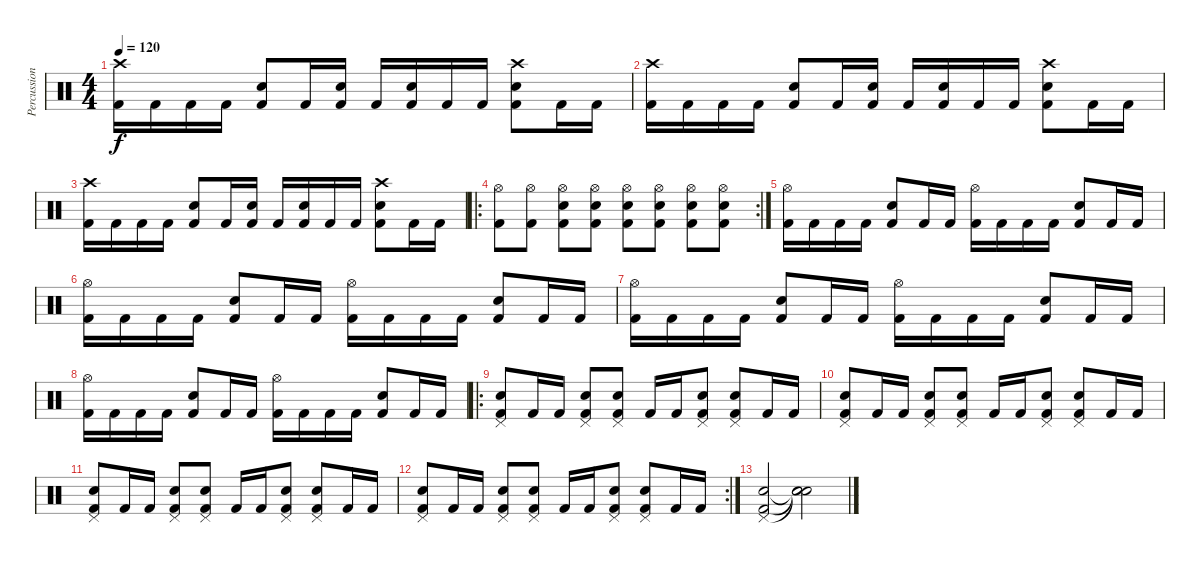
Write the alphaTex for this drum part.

\track ("Percussion - Ryan Vikedal" "Percussion") {instrument percussion}
\staff {score}
\articulation defaults
\ts (4 4)
\tempo 120
\clef neutral
\ks c
("Crash high (hit)" "Kick (hit) 2").16{dy f} "Kick (hit) 2".16 "Kick (hit) 2".16 "Kick (hit) 2".16 ("Snare (hit) 2" "Kick (hit) 2").8 "Kick (hit) 2".16 ("Snare (hit) 2" "Kick (hit) 2").16 "Kick (hit) 2".16 ("Snare (hit) 2" "Kick (hit) 2").16 "Kick (hit) 2".16 "Kick (hit) 2".16 ("Crash high (hit)" "Snare (hit) 2" "Kick (hit) 2").8 "Kick (hit) 2".16 "Kick (hit) 2".16 |
("Crash high (hit)" "Kick (hit) 2").16 "Kick (hit) 2".16 "Kick (hit) 2".16 "Kick (hit) 2".16 ("Snare (hit) 2" "Kick (hit) 2").8 "Kick (hit) 2".16 ("Snare (hit) 2" "Kick (hit) 2").16 "Kick (hit) 2".16 ("Snare (hit) 2" "Kick (hit) 2").16 "Kick (hit) 2".16 "Kick (hit) 2".16 ("Crash high (hit)" "Snare (hit) 2" "Kick (hit) 2").8 "Kick (hit) 2".16 "Kick (hit) 2".16 |
("Crash high (hit)" "Kick (hit) 2").16 "Kick (hit) 2".16 "Kick (hit) 2".16 "Kick (hit) 2".16 ("Snare (hit) 2" "Kick (hit) 2").8 "Kick (hit) 2".16 ("Snare (hit) 2" "Kick (hit) 2").16 "Kick (hit) 2".16 ("Snare (hit) 2" "Kick (hit) 2").16 "Kick (hit) 2".16 "Kick (hit) 2".16 ("Crash high (hit)" "Snare (hit) 2" "Kick (hit) 2").8 "Kick (hit) 2".16 "Kick (hit) 2".16 |
\ro
\rc 2
("Hi-Hat (open)" "Kick (hit) 2").8 ("Hi-Hat (open)" "Kick (hit) 2").8 ("Hi-Hat (open)" "Snare (hit) 2" "Kick (hit) 2").8 ("Hi-Hat (open)" "Snare (hit) 2" "Kick (hit) 2").8 ("Hi-Hat (open)" "Snare (hit) 2" "Kick (hit) 2").8 ("Hi-Hat (open)" "Snare (hit) 2" "Kick (hit) 2").8 ("Hi-Hat (open)" "Snare (hit) 2" "Kick (hit) 2").8 ("Hi-Hat (open)" "Snare (hit) 2" "Kick (hit) 2").8 |
("Hi-Hat (open)" "Kick (hit) 2").16 "Kick (hit) 2".16 "Kick (hit) 2".16 "Kick (hit) 2".16 ("Snare (hit) 2" "Kick (hit) 2").8 "Kick (hit) 2".16 "Kick (hit) 2".16 ("Hi-Hat (open)" "Kick (hit) 2").16 "Kick (hit) 2".16 "Kick (hit) 2".16 "Kick (hit) 2".16 ("Snare (hit) 2" "Kick (hit) 2").8 "Kick (hit) 2".16 "Kick (hit) 2".16 |
("Hi-Hat (open)" "Kick (hit) 2").16 "Kick (hit) 2".16 "Kick (hit) 2".16 "Kick (hit) 2".16 ("Snare (hit) 2" "Kick (hit) 2").8 "Kick (hit) 2".16 "Kick (hit) 2".16 ("Hi-Hat (open)" "Kick (hit) 2").16 "Kick (hit) 2".16 "Kick (hit) 2".16 "Kick (hit) 2".16 ("Snare (hit) 2" "Kick (hit) 2").8 "Kick (hit) 2".16 "Kick (hit) 2".16 |
("Hi-Hat (open)" "Kick (hit) 2").16 "Kick (hit) 2".16 "Kick (hit) 2".16 "Kick (hit) 2".16 ("Snare (hit) 2" "Kick (hit) 2").8 "Kick (hit) 2".16 "Kick (hit) 2".16 ("Hi-Hat (open)" "Kick (hit) 2").16 "Kick (hit) 2".16 "Kick (hit) 2".16 "Kick (hit) 2".16 ("Snare (hit) 2" "Kick (hit) 2").8 "Kick (hit) 2".16 "Kick (hit) 2".16 |
("Hi-Hat (open)" "Kick (hit) 2").16 "Kick (hit) 2".16 "Kick (hit) 2".16 "Kick (hit) 2".16 ("Snare (hit) 2" "Kick (hit) 2").8 "Kick (hit) 2".16 "Kick (hit) 2".16 ("Hi-Hat (open)" "Kick (hit) 2").16 "Kick (hit) 2".16 "Kick (hit) 2".16 "Kick (hit) 2".16 ("Snare (hit) 2" "Kick (hit) 2").8 "Kick (hit) 2".16 "Kick (hit) 2".16 |
\ro
("Pedal Hi-Hat (hit)" "Snare (hit) 2" "Kick (hit) 2").8{volume 8} "Kick (hit) 2".16 "Kick (hit) 2".16 ("Pedal Hi-Hat (hit)" "Snare (hit) 2" "Kick (hit) 2").8 ("Pedal Hi-Hat (hit)" "Snare (hit) 2" "Kick (hit) 2").8 "Kick (hit) 2".16 "Kick (hit) 2".16 ("Pedal Hi-Hat (hit)" "Snare (hit) 2" "Kick (hit) 2").8 ("Pedal Hi-Hat (hit)" "Snare (hit) 2" "Kick (hit) 2").8 "Kick (hit) 2".16 "Kick (hit) 2".16 |
("Pedal Hi-Hat (hit)" "Snare (hit) 2" "Kick (hit) 2").8{volume 10} "Kick (hit) 2".16 "Kick (hit) 2".16 ("Pedal Hi-Hat (hit)" "Snare (hit) 2" "Kick (hit) 2").8 ("Pedal Hi-Hat (hit)" "Snare (hit) 2" "Kick (hit) 2").8 "Kick (hit) 2".16 "Kick (hit) 2".16 ("Pedal Hi-Hat (hit)" "Snare (hit) 2" "Kick (hit) 2").8 ("Pedal Hi-Hat (hit)" "Snare (hit) 2" "Kick (hit) 2").8 "Kick (hit) 2".16 "Kick (hit) 2".16 |
("Pedal Hi-Hat (hit)" "Snare (hit) 2" "Kick (hit) 2").8{volume 10} "Kick (hit) 2".16 "Kick (hit) 2".16 ("Pedal Hi-Hat (hit)" "Snare (hit) 2" "Kick (hit) 2").8 ("Pedal Hi-Hat (hit)" "Snare (hit) 2" "Kick (hit) 2").8 "Kick (hit) 2".16 "Kick (hit) 2".16 ("Pedal Hi-Hat (hit)" "Snare (hit) 2" "Kick (hit) 2").8 ("Pedal Hi-Hat (hit)" "Snare (hit) 2" "Kick (hit) 2").8 "Kick (hit) 2".16 "Kick (hit) 2".16 |
\rc 2
("Pedal Hi-Hat (hit)" "Snare (hit) 2" "Kick (hit) 2").8{volume 10} "Kick (hit) 2".16 "Kick (hit) 2".16 ("Pedal Hi-Hat (hit)" "Snare (hit) 2" "Kick (hit) 2").8 ("Pedal Hi-Hat (hit)" "Snare (hit) 2" "Kick (hit) 2").8 "Kick (hit) 2".16 "Kick (hit) 2".16 ("Pedal Hi-Hat (hit)" "Snare (hit) 2" "Kick (hit) 2").8 ("Pedal Hi-Hat (hit)" "Snare (hit) 2" "Kick (hit) 2").8 "Kick (hit) 2".16 "Kick (hit) 2".16 |
("Pedal Hi-Hat (hit)" "Snare (hit) 2" "Kick (hit) 2").2{volume 12} ("Snare (hit)"{t} "Snare (hit)"{t} "Snare (hit)"{t}).2
